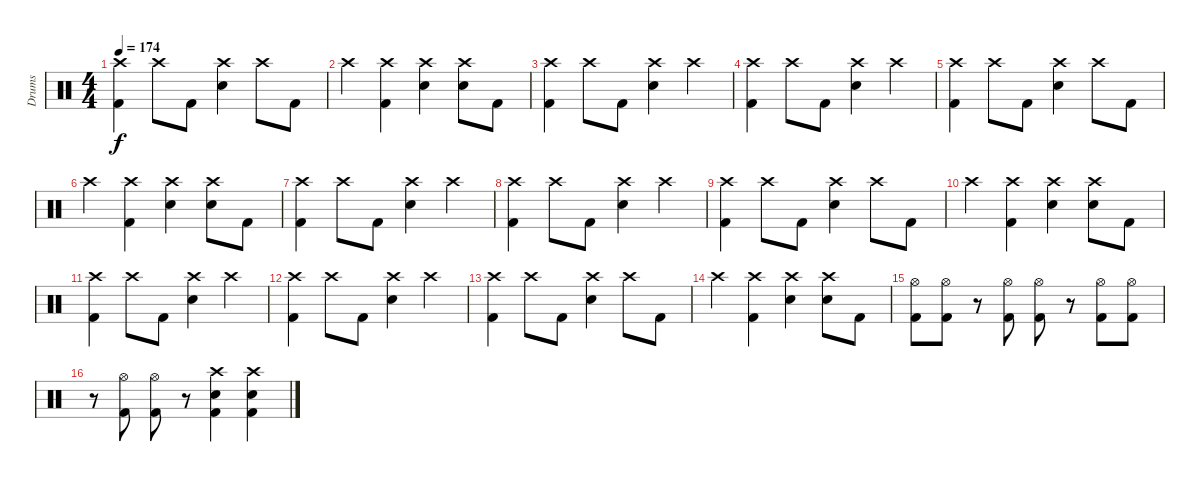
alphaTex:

\track ("Drums" "Drums") {instrument percussion}
\staff {score}
\articulation defaults
\ts (4 4)
\tempo 174
\clef neutral
\ks c
("Crash high (hit)" "Kick (hit) 2").4{dy f} "Crash high (hit)".8 "Kick (hit) 2".8 ("Crash high (hit)" "Electric Snare (hit)").4 "Crash high (hit)".8 "Kick (hit) 2".8 |
"Crash high (hit)".4 ("Crash high (hit)" "Kick (hit) 2").4 ("Crash high (hit)" "Electric Snare (hit)").4 ("Crash high (hit)" "Electric Snare (hit)").8 "Kick (hit) 2".8 |
("Crash high (hit)" "Kick (hit) 2").4 "Crash high (hit)".8 "Kick (hit) 2".8 ("Crash high (hit)" "Electric Snare (hit)").4 "Crash high (hit)".4 |
("Crash high (hit)" "Kick (hit) 2").4 "Crash high (hit)".8 "Kick (hit) 2".8 ("Crash high (hit)" "Electric Snare (hit)").4 "Crash high (hit)".4 |
("Crash high (hit)" "Kick (hit) 2").4 "Crash high (hit)".8 "Kick (hit) 2".8 ("Crash high (hit)" "Electric Snare (hit)").4 "Crash high (hit)".8 "Kick (hit) 2".8 |
"Crash high (hit)".4 ("Crash high (hit)" "Kick (hit) 2").4 ("Crash high (hit)" "Electric Snare (hit)").4 ("Crash high (hit)" "Electric Snare (hit)").8 "Kick (hit) 2".8 |
("Crash high (hit)" "Kick (hit) 2").4 "Crash high (hit)".8 "Kick (hit) 2".8 ("Crash high (hit)" "Electric Snare (hit)").4 "Crash high (hit)".4 |
("Crash high (hit)" "Kick (hit) 2").4 "Crash high (hit)".8 "Kick (hit) 2".8 ("Crash high (hit)" "Electric Snare (hit)").4 "Crash high (hit)".4 |
("Crash high (hit)" "Kick (hit) 2").4 "Crash high (hit)".8 "Kick (hit) 2".8 ("Crash high (hit)" "Electric Snare (hit)").4 "Crash high (hit)".8 "Kick (hit) 2".8 |
"Crash high (hit)".4 ("Crash high (hit)" "Kick (hit) 2").4 ("Crash high (hit)" "Electric Snare (hit)").4 ("Crash high (hit)" "Electric Snare (hit)").8 "Kick (hit) 2".8 |
("Crash high (hit)" "Kick (hit) 2").4 "Crash high (hit)".8 "Kick (hit) 2".8 ("Crash high (hit)" "Electric Snare (hit)").4 "Crash high (hit)".4 |
("Crash high (hit)" "Kick (hit) 2").4 "Crash high (hit)".8 "Kick (hit) 2".8 ("Crash high (hit)" "Electric Snare (hit)").4 "Crash high (hit)".4 |
("Crash high (hit)" "Kick (hit) 2").4 "Crash high (hit)".8 "Kick (hit) 2".8 ("Crash high (hit)" "Electric Snare (hit)").4 "Crash high (hit)".8 "Kick (hit) 2".8 |
"Crash high (hit)".4 ("Crash high (hit)" "Kick (hit) 2").4 ("Crash high (hit)" "Electric Snare (hit)").4 ("Crash high (hit)" "Electric Snare (hit)").8 "Kick (hit) 2".8 |
("Hi-Hat (open)" "Kick (hit) 2").8 ("Hi-Hat (open)" "Kick (hit) 2").8 r.8 ("Hi-Hat (open)" "Kick (hit) 2").8 ("Hi-Hat (open)" "Kick (hit) 2").8 r.8 ("Hi-Hat (open)" "Kick (hit) 2").8 ("Hi-Hat (open)" "Kick (hit) 2").8 |
r.8 ("Hi-Hat (open)" "Kick (hit) 2").8 ("Hi-Hat (open)" "Kick (hit) 2").8 r.8 ("Crash high (hit)" "Electric Snare (hit)" "Kick (hit) 2").4 ("Crash high (hit)" "Electric Snare (hit)" "Kick (hit) 2").4
